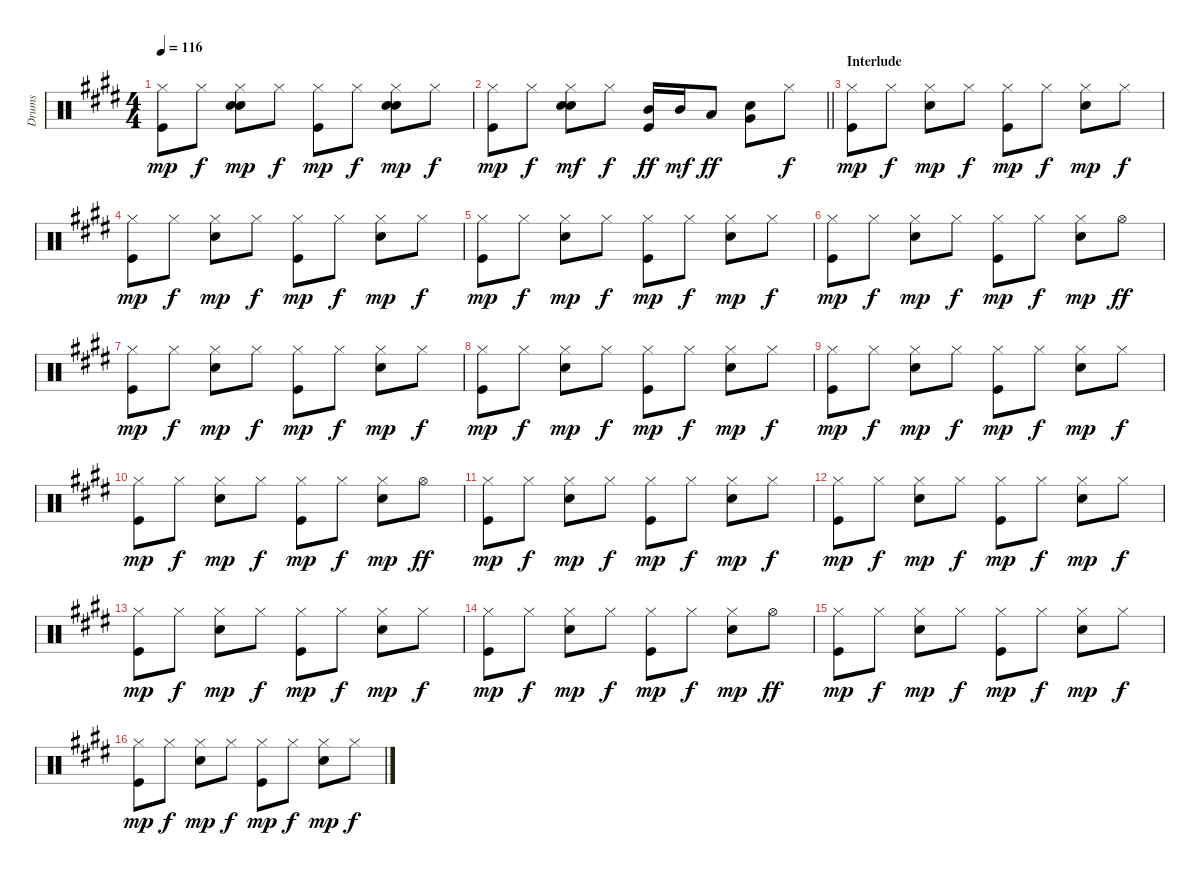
\track ("Drums" "Drums") {instrument percussion}
\staff {score}
\articulation defaults
\ts (4 4)
\tempo 116
\clef neutral
\ks e
("Kick (hit)" "Hi-Hat (closed)").8{dy mp} "Hi-Hat (closed)".8{dy f} ("Hand Clap (hit)" "Electric Snare (hit)" "Hi-Hat (closed)").8{dy mp} "Hi-Hat (closed)".8{dy f} ("Kick (hit)" "Hi-Hat (closed)").8{dy mp} "Hi-Hat (closed)".8{dy f} ("Hand Clap (hit)" "Electric Snare (hit)" "Hi-Hat (closed)").8{dy mp} "Hi-Hat (closed)".8{dy f} |
\barLineRight lightlight
("Kick (hit)" "Hi-Hat (closed)").8{dy mp} "Hi-Hat (closed)".8{dy f} ("Hand Clap (hit)" "Electric Snare (hit)" "Hi-Hat (closed)").8{dy mf} "Hi-Hat (closed)".8{dy f} ("Kick (hit)" "Mid Tom (hit)").16{dy ff} "Mid Tom (hit)".16{dy mf} "Low Tom (hit)".8{dy ff} ("Hand Clap (hit)" "Very Low Tom (hit)").8 "Hi-Hat (closed)".8{dy f} |
\section ("" "Interlude")
("Kick (hit)" "Hi-Hat (closed)").8{dy mp} "Hi-Hat (closed)".8{dy f} ("Electric Snare (hit)" "Hi-Hat (closed)").8{dy mp} "Hi-Hat (closed)".8{dy f} ("Kick (hit)" "Hi-Hat (closed)").8{dy mp} "Hi-Hat (closed)".8{dy f} ("Electric Snare (hit)" "Hi-Hat (closed)").8{dy mp} "Hi-Hat (closed)".8{dy f} |
("Kick (hit)" "Hi-Hat (closed)").8{dy mp} "Hi-Hat (closed)".8{dy f} ("Electric Snare (hit)" "Hi-Hat (closed)").8{dy mp} "Hi-Hat (closed)".8{dy f} ("Kick (hit)" "Hi-Hat (closed)").8{dy mp} "Hi-Hat (closed)".8{dy f} ("Electric Snare (hit)" "Hi-Hat (closed)").8{dy mp} "Hi-Hat (closed)".8{dy f} |
("Kick (hit)" "Hi-Hat (closed)").8{dy mp} "Hi-Hat (closed)".8{dy f} ("Electric Snare (hit)" "Hi-Hat (closed)").8{dy mp} "Hi-Hat (closed)".8{dy f} ("Kick (hit)" "Hi-Hat (closed)").8{dy mp} "Hi-Hat (closed)".8{dy f} ("Electric Snare (hit)" "Hi-Hat (closed)").8{dy mp} "Hi-Hat (closed)".8{dy f} |
("Kick (hit)" "Hi-Hat (closed)").8{dy mp} "Hi-Hat (closed)".8{dy f} ("Electric Snare (hit)" "Hi-Hat (closed)").8{dy mp} "Hi-Hat (closed)".8{dy f} ("Kick (hit)" "Hi-Hat (closed)").8{dy mp} "Hi-Hat (closed)".8{dy f} ("Electric Snare (hit)" "Hi-Hat (closed)").8{dy mp} "Hi-Hat (open)".8{dy ff} |
("Kick (hit)" "Hi-Hat (closed)").8{dy mp} "Hi-Hat (closed)".8{dy f} ("Electric Snare (hit)" "Hi-Hat (closed)").8{dy mp} "Hi-Hat (closed)".8{dy f} ("Kick (hit)" "Hi-Hat (closed)").8{dy mp} "Hi-Hat (closed)".8{dy f} ("Electric Snare (hit)" "Hi-Hat (closed)").8{dy mp} "Hi-Hat (closed)".8{dy f} |
("Kick (hit)" "Hi-Hat (closed)").8{dy mp} "Hi-Hat (closed)".8{dy f} ("Electric Snare (hit)" "Hi-Hat (closed)").8{dy mp} "Hi-Hat (closed)".8{dy f} ("Kick (hit)" "Hi-Hat (closed)").8{dy mp} "Hi-Hat (closed)".8{dy f} ("Electric Snare (hit)" "Hi-Hat (closed)").8{dy mp} "Hi-Hat (closed)".8{dy f} |
("Kick (hit)" "Hi-Hat (closed)").8{dy mp} "Hi-Hat (closed)".8{dy f} ("Electric Snare (hit)" "Hi-Hat (closed)").8{dy mp} "Hi-Hat (closed)".8{dy f} ("Kick (hit)" "Hi-Hat (closed)").8{dy mp} "Hi-Hat (closed)".8{dy f} ("Electric Snare (hit)" "Hi-Hat (closed)").8{dy mp} "Hi-Hat (closed)".8{dy f} |
("Kick (hit)" "Hi-Hat (closed)").8{dy mp} "Hi-Hat (closed)".8{dy f} ("Electric Snare (hit)" "Hi-Hat (closed)").8{dy mp} "Hi-Hat (closed)".8{dy f} ("Kick (hit)" "Hi-Hat (closed)").8{dy mp} "Hi-Hat (closed)".8{dy f} ("Electric Snare (hit)" "Hi-Hat (closed)").8{dy mp} "Hi-Hat (open)".8{dy ff} |
("Kick (hit)" "Hi-Hat (closed)").8{dy mp} "Hi-Hat (closed)".8{dy f} ("Electric Snare (hit)" "Hi-Hat (closed)").8{dy mp} "Hi-Hat (closed)".8{dy f} ("Kick (hit)" "Hi-Hat (closed)").8{dy mp} "Hi-Hat (closed)".8{dy f} ("Electric Snare (hit)" "Hi-Hat (closed)").8{dy mp} "Hi-Hat (closed)".8{dy f} |
("Kick (hit)" "Hi-Hat (closed)").8{dy mp} "Hi-Hat (closed)".8{dy f} ("Electric Snare (hit)" "Hi-Hat (closed)").8{dy mp} "Hi-Hat (closed)".8{dy f} ("Kick (hit)" "Hi-Hat (closed)").8{dy mp} "Hi-Hat (closed)".8{dy f} ("Electric Snare (hit)" "Hi-Hat (closed)").8{dy mp} "Hi-Hat (closed)".8{dy f} |
("Kick (hit)" "Hi-Hat (closed)").8{dy mp} "Hi-Hat (closed)".8{dy f} ("Electric Snare (hit)" "Hi-Hat (closed)").8{dy mp} "Hi-Hat (closed)".8{dy f} ("Kick (hit)" "Hi-Hat (closed)").8{dy mp} "Hi-Hat (closed)".8{dy f} ("Electric Snare (hit)" "Hi-Hat (closed)").8{dy mp} "Hi-Hat (closed)".8{dy f} |
("Kick (hit)" "Hi-Hat (closed)").8{dy mp} "Hi-Hat (closed)".8{dy f} ("Electric Snare (hit)" "Hi-Hat (closed)").8{dy mp} "Hi-Hat (closed)".8{dy f} ("Kick (hit)" "Hi-Hat (closed)").8{dy mp} "Hi-Hat (closed)".8{dy f} ("Electric Snare (hit)" "Hi-Hat (closed)").8{dy mp} "Hi-Hat (open)".8{dy ff} |
("Kick (hit)" "Hi-Hat (closed)").8{dy mp} "Hi-Hat (closed)".8{dy f} ("Electric Snare (hit)" "Hi-Hat (closed)").8{dy mp} "Hi-Hat (closed)".8{dy f} ("Kick (hit)" "Hi-Hat (closed)").8{dy mp} "Hi-Hat (closed)".8{dy f} ("Electric Snare (hit)" "Hi-Hat (closed)").8{dy mp} "Hi-Hat (closed)".8{dy f} |
("Kick (hit)" "Hi-Hat (closed)").8{dy mp} "Hi-Hat (closed)".8{dy f} ("Electric Snare (hit)" "Hi-Hat (closed)").8{dy mp} "Hi-Hat (closed)".8{dy f} ("Kick (hit)" "Hi-Hat (closed)").8{dy mp} "Hi-Hat (closed)".8{dy f} ("Electric Snare (hit)" "Hi-Hat (closed)").8{dy mp} "Hi-Hat (closed)".8{dy f}
